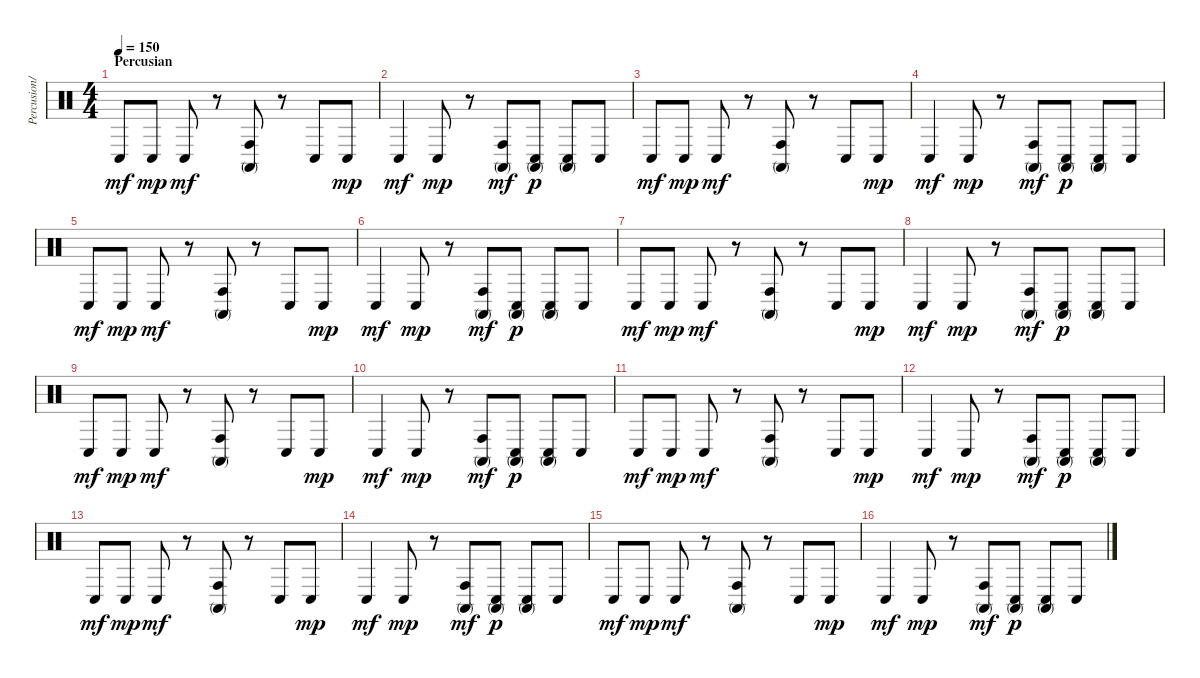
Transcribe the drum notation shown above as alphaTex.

\track ("Percusion/Drum" "Percusion/") {instrument percussion}
\staff {score}
\articulation defaults
\ts (4 4)
\section ("" "Percusian")
\tempo 150
\clef neutral
\ks c "Conga low (hit)".8{dy mf} "Conga low (hit)".8{dy mp} "Conga low (hit)".8{dy mf}
r.8 ("Conga high (mute)" "Conga high (hit)").8 r.8 "Conga low (hit)".8 "Conga low (hit)".8{dy mp} |
"Conga low (hit)".4{dy mf} "Conga low (hit)".8{dy mp} r.8 ("Conga high (mute)" "Conga high (hit)").8{dy mf} ("Conga low (hit)" "Conga high (mute)").8{dy p} ("Conga low (hit)" "Conga high (mute)").8 "Conga low (hit)".8 |
"Conga low (hit)".8{dy mf} "Conga low (hit)".8{dy mp} "Conga low (hit)".8{dy mf} r.8 ("Conga high (mute)" "Conga high (hit)").8 r.8 "Conga low (hit)".8 "Conga low (hit)".8{dy mp} |
"Conga low (hit)".4{dy mf} "Conga low (hit)".8{dy mp} r.8 ("Conga high (mute)" "Conga high (hit)").8{dy mf} ("Conga low (hit)" "Conga high (mute)").8{dy p} ("Conga low (hit)" "Conga high (mute)").8 "Conga low (hit)".8 |
"Conga low (hit)".8{dy mf} "Conga low (hit)".8{dy mp} "Conga low (hit)".8{dy mf} r.8 ("Conga high (mute)" "Conga high (hit)").8 r.8 "Conga low (hit)".8 "Conga low (hit)".8{dy mp} |
"Conga low (hit)".4{dy mf} "Conga low (hit)".8{dy mp} r.8 ("Conga high (mute)" "Conga high (hit)").8{dy mf} ("Conga low (hit)" "Conga high (mute)").8{dy p} ("Conga low (hit)" "Conga high (mute)").8 "Conga low (hit)".8 |
"Conga low (hit)".8{dy mf} "Conga low (hit)".8{dy mp} "Conga low (hit)".8{dy mf} r.8 ("Conga high (mute)" "Conga high (hit)").8 r.8 "Conga low (hit)".8 "Conga low (hit)".8{dy mp} |
"Conga low (hit)".4{dy mf} "Conga low (hit)".8{dy mp} r.8 ("Conga high (mute)" "Conga high (hit)").8{dy mf} ("Conga low (hit)" "Conga high (mute)").8{dy p} ("Conga low (hit)" "Conga high (mute)").8 "Conga low (hit)".8 |
"Conga low (hit)".8{dy mf} "Conga low (hit)".8{dy mp} "Conga low (hit)".8{dy mf} r.8 ("Conga high (mute)" "Conga high (hit)").8 r.8 "Conga low (hit)".8 "Conga low (hit)".8{dy mp} |
"Conga low (hit)".4{dy mf} "Conga low (hit)".8{dy mp} r.8 ("Conga high (mute)" "Conga high (hit)").8{dy mf} ("Conga low (hit)" "Conga high (mute)").8{dy p} ("Conga low (hit)" "Conga high (mute)").8 "Conga low (hit)".8 |
"Conga low (hit)".8{dy mf} "Conga low (hit)".8{dy mp} "Conga low (hit)".8{dy mf} r.8 ("Conga high (mute)" "Conga high (hit)").8 r.8 "Conga low (hit)".8 "Conga low (hit)".8{dy mp} |
"Conga low (hit)".4{dy mf} "Conga low (hit)".8{dy mp} r.8 ("Conga high (mute)" "Conga high (hit)").8{dy mf} ("Conga low (hit)" "Conga high (mute)").8{dy p} ("Conga low (hit)" "Conga high (mute)").8 "Conga low (hit)".8 |
"Conga low (hit)".8{dy mf} "Conga low (hit)".8{dy mp} "Conga low (hit)".8{dy mf} r.8 ("Conga high (mute)" "Conga high (hit)").8 r.8 "Conga low (hit)".8 "Conga low (hit)".8{dy mp} |
"Conga low (hit)".4{dy mf} "Conga low (hit)".8{dy mp} r.8 ("Conga high (mute)" "Conga high (hit)").8{dy mf} ("Conga low (hit)" "Conga high (mute)").8{dy p} ("Conga low (hit)" "Conga high (mute)").8 "Conga low (hit)".8 |
"Conga low (hit)".8{dy mf} "Conga low (hit)".8{dy mp} "Conga low (hit)".8{dy mf} r.8 ("Conga high (mute)" "Conga high (hit)").8 r.8 "Conga low (hit)".8 "Conga low (hit)".8{dy mp} |
"Conga low (hit)".4{dy mf} "Conga low (hit)".8{dy mp} r.8 ("Conga high (mute)" "Conga high (hit)").8{dy mf} ("Conga low (hit)" "Conga high (mute)").8{dy p} ("Conga low (hit)" "Conga high (mute)").8 "Conga low (hit)".8
